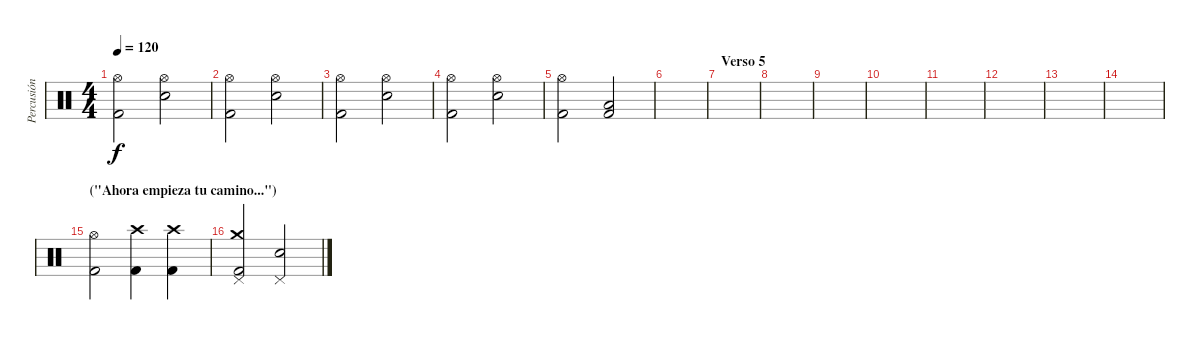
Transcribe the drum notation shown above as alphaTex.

\track ("Percusión" "Percusión") {instrument percussion}
\staff {score}
\articulation defaults
\ts (4 4)
\tempo 120
\clef neutral
\ks c
("Hi-Hat (open)" "Kick (hit) 2").2{dy f} ("Hi-Hat (open)" "Snare (hit) 2").2 |
("Hi-Hat (open)" "Kick (hit) 2").2 ("Hi-Hat (open)" "Snare (hit) 2").2 |
("Hi-Hat (open)" "Kick (hit) 2").2 ("Hi-Hat (open)" "Snare (hit) 2").2 |
("Hi-Hat (open)" "Kick (hit) 2").2 ("Hi-Hat (open)" "Snare (hit) 2").2 |
("Hi-Hat (open)" "Kick (hit) 2").2 ("Low Floor Tom (hit)" "Kick (hit) 2").2 |
|
\section ("" "Verso 5")
|
|
|
|
|
|
|
|
\section ("" "(\"Ahora empieza tu camino...\")")
("Hi-Hat (open)" "Kick (hit) 2").2 ("Crash high (hit)" "Kick (hit) 2").4 ("Crash high (hit)" "Kick (hit) 2").4 |
("Crash medium (hit)" "Pedal Hi-Hat (hit)" "Kick (hit) 2").2 ("Pedal Hi-Hat (hit)" "Snare (hit) 2").2
